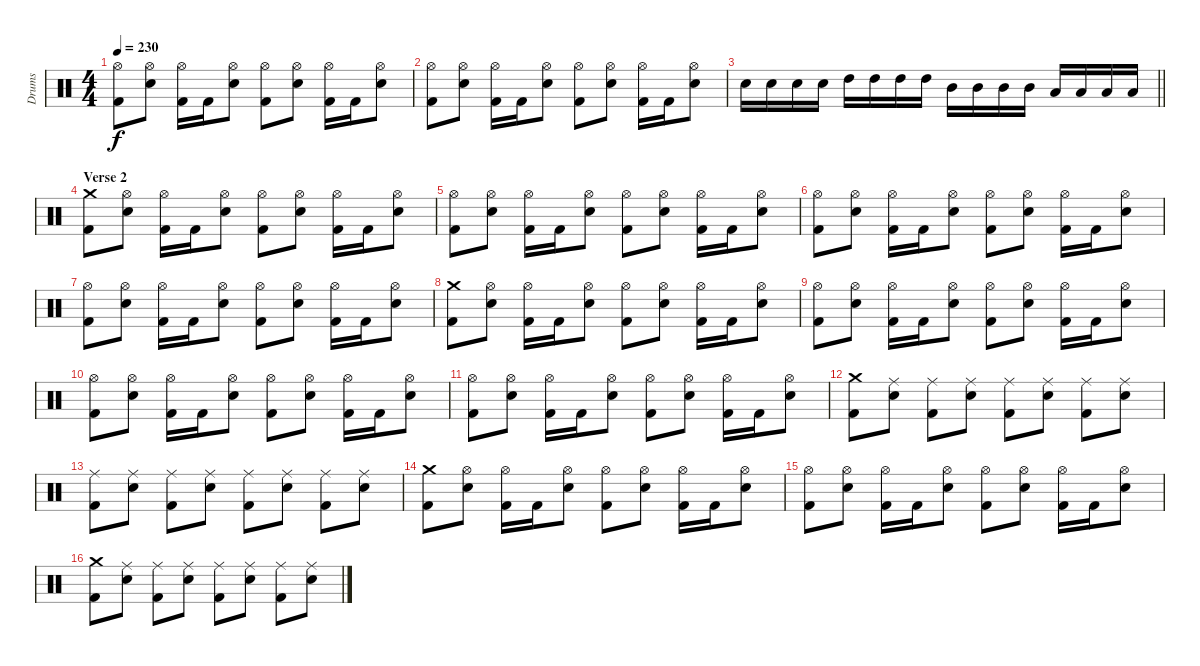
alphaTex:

\track ("Drums" "Drums") {instrument percussion}
\staff {score}
\articulation defaults
\ts (4 4)
\tempo 230
\clef neutral
\ks c
("Hi-Hat (open)" "Kick (hit) 2").8{dy f} ("Hi-Hat (open)" "Electric Snare (hit)").8 ("Hi-Hat (open)" "Kick (hit) 2").16 "Kick (hit) 2".16 ("Hi-Hat (open)" "Electric Snare (hit)").8 ("Hi-Hat (open)" "Kick (hit) 2").8 ("Hi-Hat (open)" "Electric Snare (hit)").8 ("Hi-Hat (open)" "Kick (hit) 2").16 "Kick (hit) 2".16 ("Hi-Hat (open)" "Electric Snare (hit)").8 |
("Hi-Hat (open)" "Kick (hit) 2").8 ("Hi-Hat (open)" "Electric Snare (hit)").8 ("Hi-Hat (open)" "Kick (hit) 2").16 "Kick (hit) 2".16 ("Hi-Hat (open)" "Electric Snare (hit)").8 ("Hi-Hat (open)" "Kick (hit) 2").8 ("Hi-Hat (open)" "Electric Snare (hit)").8 ("Hi-Hat (open)" "Kick (hit) 2").16 "Kick (hit) 2".16 ("Hi-Hat (open)" "Electric Snare (hit)").8 |
\barLineRight lightlight "Electric Snare (hit)".16 "Electric Snare (hit)".16 "Electric Snare (hit)".16 "Electric Snare (hit)".16 "High Tom (hit)".16 "High Tom (hit)".16 "High Tom (hit)".16 "High Tom (hit)".16 "Mid Tom (hit)".16 "Mid Tom (hit)".16 "Mid Tom (hit)".16 "Mid Tom (hit)".16 "Low Tom (hit)".16 "Low Tom (hit)".16 "Low Tom (hit)".16 "Low Tom (hit)".16
|
\section ("" "Verse 2")
("Crash medium (hit)" "Kick (hit) 2").8 ("Hi-Hat (open)" "Electric Snare (hit)").8 ("Hi-Hat (open)" "Kick (hit) 2").16 "Kick (hit) 2".16 ("Hi-Hat (open)" "Electric Snare (hit)").8 ("Hi-Hat (open)" "Kick (hit) 2").8 ("Hi-Hat (open)" "Electric Snare (hit)").8 ("Hi-Hat (open)" "Kick (hit) 2").16 "Kick (hit) 2".16 ("Hi-Hat (open)" "Electric Snare (hit)").8 |
("Hi-Hat (open)" "Kick (hit) 2").8 ("Hi-Hat (open)" "Electric Snare (hit)").8 ("Hi-Hat (open)" "Kick (hit) 2").16 "Kick (hit) 2".16 ("Hi-Hat (open)" "Electric Snare (hit)").8 ("Hi-Hat (open)" "Kick (hit) 2").8 ("Hi-Hat (open)" "Electric Snare (hit)").8 ("Hi-Hat (open)" "Kick (hit) 2").16 "Kick (hit) 2".16 ("Hi-Hat (open)" "Electric Snare (hit)").8 |
("Hi-Hat (open)" "Kick (hit) 2").8 ("Hi-Hat (open)" "Electric Snare (hit)").8 ("Hi-Hat (open)" "Kick (hit) 2").16 "Kick (hit) 2".16 ("Hi-Hat (open)" "Electric Snare (hit)").8 ("Hi-Hat (open)" "Kick (hit) 2").8 ("Hi-Hat (open)" "Electric Snare (hit)").8 ("Hi-Hat (open)" "Kick (hit) 2").16 "Kick (hit) 2".16 ("Hi-Hat (open)" "Electric Snare (hit)").8 |
("Hi-Hat (open)" "Kick (hit) 2").8 ("Hi-Hat (open)" "Electric Snare (hit)").8 ("Hi-Hat (open)" "Kick (hit) 2").16 "Kick (hit) 2".16 ("Hi-Hat (open)" "Electric Snare (hit)").8 ("Hi-Hat (open)" "Kick (hit) 2").8 ("Hi-Hat (open)" "Electric Snare (hit)").8 ("Hi-Hat (open)" "Kick (hit) 2").16 "Kick (hit) 2".16 ("Hi-Hat (open)" "Electric Snare (hit)").8 |
("Crash medium (hit)" "Kick (hit) 2").8 ("Hi-Hat (open)" "Electric Snare (hit)").8 ("Hi-Hat (open)" "Kick (hit) 2").16 "Kick (hit) 2".16 ("Hi-Hat (open)" "Electric Snare (hit)").8 ("Hi-Hat (open)" "Kick (hit) 2").8 ("Hi-Hat (open)" "Electric Snare (hit)").8 ("Hi-Hat (open)" "Kick (hit) 2").16 "Kick (hit) 2".16 ("Hi-Hat (open)" "Electric Snare (hit)").8 |
("Hi-Hat (open)" "Kick (hit) 2").8 ("Hi-Hat (open)" "Electric Snare (hit)").8 ("Hi-Hat (open)" "Kick (hit) 2").16 "Kick (hit) 2".16 ("Hi-Hat (open)" "Electric Snare (hit)").8 ("Hi-Hat (open)" "Kick (hit) 2").8 ("Hi-Hat (open)" "Electric Snare (hit)").8 ("Hi-Hat (open)" "Kick (hit) 2").16 "Kick (hit) 2".16 ("Hi-Hat (open)" "Electric Snare (hit)").8 |
("Hi-Hat (open)" "Kick (hit) 2").8 ("Hi-Hat (open)" "Electric Snare (hit)").8 ("Hi-Hat (open)" "Kick (hit) 2").16 "Kick (hit) 2".16 ("Hi-Hat (open)" "Electric Snare (hit)").8 ("Hi-Hat (open)" "Kick (hit) 2").8 ("Hi-Hat (open)" "Electric Snare (hit)").8 ("Hi-Hat (open)" "Kick (hit) 2").16 "Kick (hit) 2".16 ("Hi-Hat (open)" "Electric Snare (hit)").8 |
("Hi-Hat (open)" "Kick (hit) 2").8 ("Hi-Hat (open)" "Electric Snare (hit)").8 ("Hi-Hat (open)" "Kick (hit) 2").16 "Kick (hit) 2".16 ("Hi-Hat (open)" "Electric Snare (hit)").8 ("Hi-Hat (open)" "Kick (hit) 2").8 ("Hi-Hat (open)" "Electric Snare (hit)").8 ("Hi-Hat (open)" "Kick (hit) 2").16 "Kick (hit) 2".16 ("Hi-Hat (open)" "Electric Snare (hit)").8 |
("Crash medium (hit)" "Kick (hit) 2").8 ("Ride (middle)" "Electric Snare (hit)").8 ("Ride (middle)" "Kick (hit) 2").8 ("Ride (middle)" "Electric Snare (hit)").8 ("Ride (middle)" "Kick (hit) 2").8 ("Ride (middle)" "Electric Snare (hit)").8 ("Ride (middle)" "Kick (hit) 2").8 ("Ride (middle)" "Electric Snare (hit)").8 |
("Ride (middle)" "Kick (hit) 2").8 ("Ride (middle)" "Electric Snare (hit)").8 ("Ride (middle)" "Kick (hit) 2").8 ("Ride (middle)" "Electric Snare (hit)").8 ("Ride (middle)" "Kick (hit) 2").8 ("Ride (middle)" "Electric Snare (hit)").8 ("Ride (middle)" "Kick (hit) 2").8 ("Ride (middle)" "Electric Snare (hit)").8 |
("Crash medium (hit)" "Kick (hit) 2").8 ("Hi-Hat (open)" "Electric Snare (hit)").8 ("Hi-Hat (open)" "Kick (hit) 2").16 "Kick (hit) 2".16 ("Hi-Hat (open)" "Electric Snare (hit)").8 ("Hi-Hat (open)" "Kick (hit) 2").8 ("Hi-Hat (open)" "Electric Snare (hit)").8 ("Hi-Hat (open)" "Kick (hit) 2").16 "Kick (hit) 2".16 ("Hi-Hat (open)" "Electric Snare (hit)").8 |
("Hi-Hat (open)" "Kick (hit) 2").8 ("Hi-Hat (open)" "Electric Snare (hit)").8 ("Hi-Hat (open)" "Kick (hit) 2").16 "Kick (hit) 2".16 ("Hi-Hat (open)" "Electric Snare (hit)").8 ("Hi-Hat (open)" "Kick (hit) 2").8 ("Hi-Hat (open)" "Electric Snare (hit)").8 ("Hi-Hat (open)" "Kick (hit) 2").16 "Kick (hit) 2".16 ("Hi-Hat (open)" "Electric Snare (hit)").8 |
("Crash medium (hit)" "Kick (hit) 2").8 ("Ride (middle)" "Electric Snare (hit)").8 ("Ride (middle)" "Kick (hit) 2").8 ("Ride (middle)" "Electric Snare (hit)").8 ("Ride (middle)" "Kick (hit) 2").8 ("Ride (middle)" "Electric Snare (hit)").8 ("Ride (middle)" "Kick (hit) 2").8 ("Ride (middle)" "Electric Snare (hit)").8
